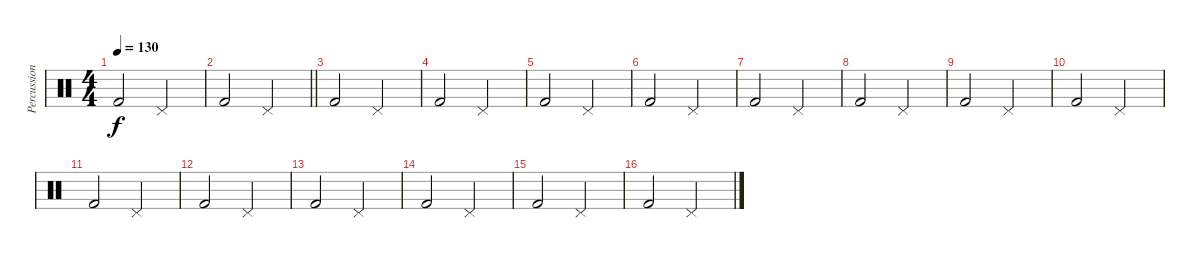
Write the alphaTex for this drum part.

\track ("Percussion" "Percussion") {instrument percussion}
\staff {score}
\articulation defaults
\ts (4 4)
\tempo 130
\clef neutral
\ks c "Kick (hit) 2".2{dy f} "Pedal Hi-Hat (hit)".2
|
\barLineRight lightlight "Kick (hit) 2".2 "Pedal Hi-Hat (hit)".2
|
"Kick (hit) 2".2 "Pedal Hi-Hat (hit)".2 |
"Kick (hit) 2".2 "Pedal Hi-Hat (hit)".2 |
"Kick (hit) 2".2 "Pedal Hi-Hat (hit)".2 |
"Kick (hit) 2".2 "Pedal Hi-Hat (hit)".2 |
"Kick (hit) 2".2 "Pedal Hi-Hat (hit)".2 |
"Kick (hit) 2".2 "Pedal Hi-Hat (hit)".2 |
"Kick (hit) 2".2 "Pedal Hi-Hat (hit)".2 |
"Kick (hit) 2".2 "Pedal Hi-Hat (hit)".2 |
"Kick (hit) 2".2 "Pedal Hi-Hat (hit)".2 |
"Kick (hit) 2".2 "Pedal Hi-Hat (hit)".2 |
"Kick (hit) 2".2 "Pedal Hi-Hat (hit)".2 |
"Kick (hit) 2".2 "Pedal Hi-Hat (hit)".2 |
"Kick (hit) 2".2 "Pedal Hi-Hat (hit)".2 |
"Kick (hit) 2".2 "Pedal Hi-Hat (hit)".2
